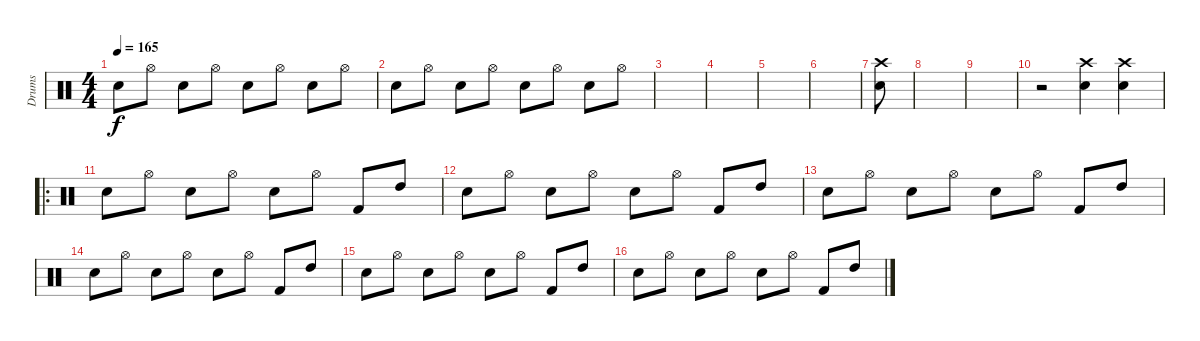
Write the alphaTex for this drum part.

\track ("Drums" "Drums") {instrument percussion}
\staff {score}
\articulation defaults
\ts (4 4)
\tempo 165
\clef neutral
\ks c "Snare (hit) 2".8{dy f} "Hi-Hat (open)".8 "Snare (hit) 2".8 "Hi-Hat (open)".8 "Snare (hit) 2".8 "Hi-Hat (open)".8 "Snare (hit) 2".8 "Hi-Hat (open)".8
|
"Snare (hit) 2".8 "Hi-Hat (open)".8 "Snare (hit) 2".8 "Hi-Hat (open)".8 "Snare (hit) 2".8 "Hi-Hat (open)".8 "Snare (hit) 2".8 "Hi-Hat (open)".8 |
|
|
|
|
("Electric Snare (hit)" "Crash high (hit)").8 |
|
|
r.2 ("Electric Snare (hit)" "Crash high (hit)").4 ("Electric Snare (hit)" "Crash high (hit)").4 |
\ro "Snare (hit) 2".8 "Hi-Hat (open)".8 "Snare (hit) 2".8 "Hi-Hat (open)".8 "Snare (hit) 2".8 "Hi-Hat (open)".8 "Kick (hit) 2".8 "High Tom (hit)".8
|
"Snare (hit) 2".8 "Hi-Hat (open)".8 "Snare (hit) 2".8 "Hi-Hat (open)".8 "Snare (hit) 2".8 "Hi-Hat (open)".8 "Kick (hit) 2".8 "High Tom (hit)".8 |
"Snare (hit) 2".8 "Hi-Hat (open)".8 "Snare (hit) 2".8 "Hi-Hat (open)".8 "Snare (hit) 2".8 "Hi-Hat (open)".8 "Kick (hit) 2".8 "High Tom (hit)".8 |
"Snare (hit) 2".8 "Hi-Hat (open)".8 "Snare (hit) 2".8 "Hi-Hat (open)".8 "Snare (hit) 2".8 "Hi-Hat (open)".8 "Kick (hit) 2".8 "High Tom (hit)".8 |
"Snare (hit) 2".8 "Hi-Hat (open)".8 "Snare (hit) 2".8 "Hi-Hat (open)".8 "Snare (hit) 2".8 "Hi-Hat (open)".8 "Kick (hit) 2".8 "High Tom (hit)".8 |
"Snare (hit) 2".8 "Hi-Hat (open)".8 "Snare (hit) 2".8 "Hi-Hat (open)".8 "Snare (hit) 2".8 "Hi-Hat (open)".8 "Kick (hit) 2".8 "High Tom (hit)".8
